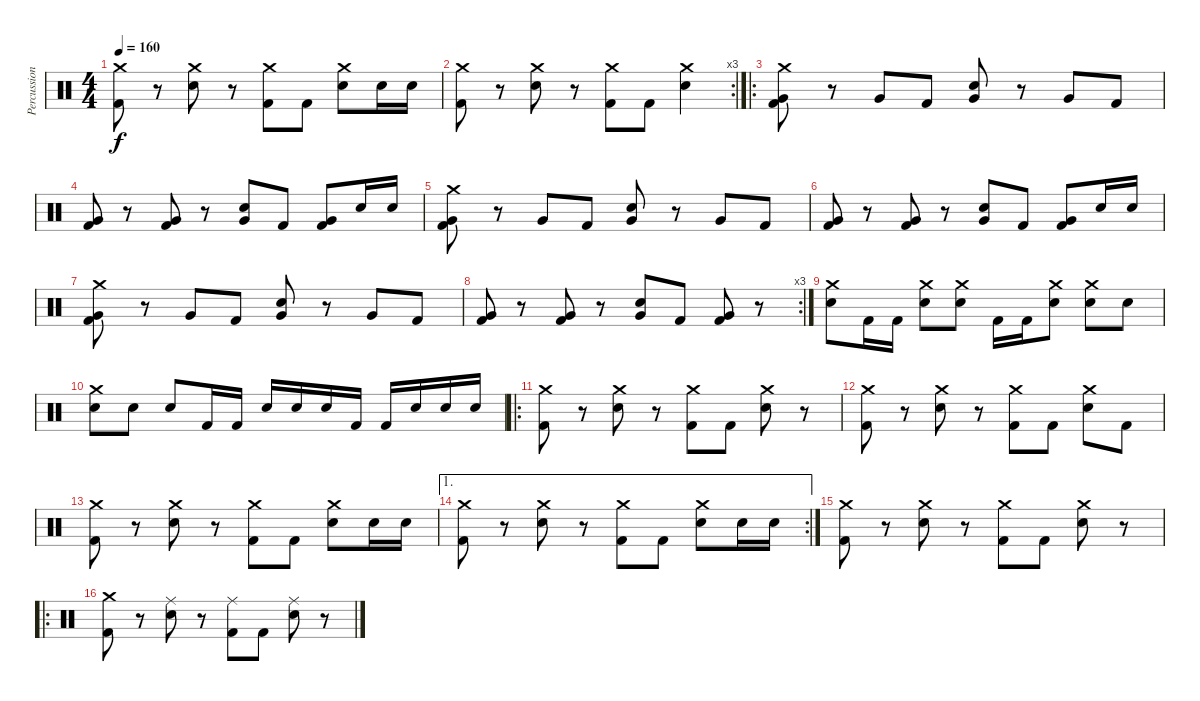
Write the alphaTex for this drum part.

\track ("Percussion" "Percussion") {instrument percussion}
\staff {score}
\articulation defaults
\ts (4 4)
\tempo 160
\clef neutral
\ks c
("Crash medium (hit)" "Kick (hit) 2").8{dy f} r.8 ("Crash medium (hit)" "Electric Snare (hit)").8 r.8 ("Crash medium (hit)" "Kick (hit) 2").8 "Kick (hit) 2".8 ("Crash medium (hit)" "Electric Snare (hit)").8 "Electric Snare (hit)".16 "Electric Snare (hit)".16 |
\rc 3
("Crash medium (hit)" "Kick (hit) 2").8 r.8 ("Crash medium (hit)" "Electric Snare (hit)").8 r.8 ("Crash medium (hit)" "Kick (hit) 2").8 "Kick (hit) 2".8 ("Crash medium (hit)" "Electric Snare (hit)").4 |
\ro
("Crash medium (hit)" "Very Low Tom (hit)" "Kick (hit) 2").8 r.8 "Very Low Tom (hit)".8 "Kick (hit) 2".8 ("Very Low Tom (hit)" "Electric Snare (hit)").8 r.8 "Very Low Tom (hit)".8 "Kick (hit) 2".8 |
("Very Low Tom (hit)" "Kick (hit) 2").8 r.8 ("Very Low Tom (hit)" "Kick (hit) 2").8 r.8 ("Very Low Tom (hit)" "Electric Snare (hit)").8 "Kick (hit) 2".8 ("Very Low Tom (hit)" "Kick (hit) 2").8 "Electric Snare (hit)".16 "Electric Snare (hit)".16 |
("Crash medium (hit)" "Very Low Tom (hit)" "Kick (hit) 2").8 r.8 "Very Low Tom (hit)".8 "Kick (hit) 2".8 ("Very Low Tom (hit)" "Electric Snare (hit)").8 r.8 "Very Low Tom (hit)".8 "Kick (hit) 2".8 |
("Very Low Tom (hit)" "Kick (hit) 2").8 r.8 ("Very Low Tom (hit)" "Kick (hit) 2").8 r.8 ("Very Low Tom (hit)" "Electric Snare (hit)").8 "Kick (hit) 2".8 ("Very Low Tom (hit)" "Kick (hit) 2").8 "Electric Snare (hit)".16 "Electric Snare (hit)".16 |
("Crash medium (hit)" "Very Low Tom (hit)" "Kick (hit) 2").8 r.8 "Very Low Tom (hit)".8 "Kick (hit) 2".8 ("Very Low Tom (hit)" "Electric Snare (hit)").8 r.8 "Very Low Tom (hit)".8 "Kick (hit) 2".8 |
\rc 3
("Very Low Tom (hit)" "Kick (hit) 2").8 r.8 ("Very Low Tom (hit)" "Kick (hit) 2").8 r.8 ("Very Low Tom (hit)" "Electric Snare (hit)").8 "Kick (hit) 2".8 ("Very Low Tom (hit)" "Kick (hit) 2").8 r.8 |
("Crash medium (hit)" "Electric Snare (hit)").8 "Kick (hit) 2".16 "Kick (hit) 2".16 ("Crash medium (hit)" "Electric Snare (hit)").8 ("Crash medium (hit)" "Electric Snare (hit)").8 "Kick (hit) 2".16 "Kick (hit) 2".16 ("Crash medium (hit)" "Electric Snare (hit)").8 ("Crash medium (hit)" "Electric Snare (hit)").8 "Electric Snare (hit)".8 |
("Crash medium (hit)" "Electric Snare (hit)").8 "Electric Snare (hit)".8 "Electric Snare (hit)".8 "Kick (hit) 2".16 "Kick (hit) 2".16 "Electric Snare (hit)".16 "Electric Snare (hit)".16 "Electric Snare (hit)".16 "Kick (hit) 2".16 "Kick (hit) 2".16 "Electric Snare (hit)".16 "Electric Snare (hit)".16 "Electric Snare (hit)".16 |
\ro
("Crash medium (hit)" "Kick (hit) 2").8 r.8 ("Crash medium (hit)" "Electric Snare (hit)").8 r.8 ("Crash medium (hit)" "Kick (hit) 2").8 "Kick (hit) 2".8 ("Crash medium (hit)" "Electric Snare (hit)").8 r.8 |
("Crash medium (hit)" "Kick (hit) 2").8 r.8 ("Crash medium (hit)" "Electric Snare (hit)").8 r.8 ("Crash medium (hit)" "Kick (hit) 2").8 "Kick (hit) 2".8 ("Crash medium (hit)" "Electric Snare (hit)").8 "Kick (hit) 2".8 |
("Crash medium (hit)" "Kick (hit) 2").8 r.8 ("Crash medium (hit)" "Electric Snare (hit)").8 r.8 ("Crash medium (hit)" "Kick (hit) 2").8 "Kick (hit) 2".8 ("Crash medium (hit)" "Electric Snare (hit)").8 "Electric Snare (hit)".16 "Electric Snare (hit)".16 |
\ae 1
\rc 2
("Crash medium (hit)" "Kick (hit) 2").8 r.8 ("Crash medium (hit)" "Electric Snare (hit)").8 r.8 ("Crash medium (hit)" "Kick (hit) 2").8 "Kick (hit) 2".8 ("Crash medium (hit)" "Electric Snare (hit)").8 "Electric Snare (hit)".16 "Electric Snare (hit)".16 |
("Crash medium (hit)" "Kick (hit) 2").8 r.8 ("Crash medium (hit)" "Electric Snare (hit)").8 r.8 ("Crash medium (hit)" "Kick (hit) 2").8 "Kick (hit) 2".8 ("Crash medium (hit)" "Electric Snare (hit)").8 r.8 |
\ro
("Crash medium (hit)" "Kick (hit) 2").8 r.8 ("Ride (middle)" "Electric Snare (hit)").8 r.8 ("Ride (middle)" "Kick (hit) 2").8 "Kick (hit) 2".8 ("Ride (middle)" "Electric Snare (hit)").8 r.8
